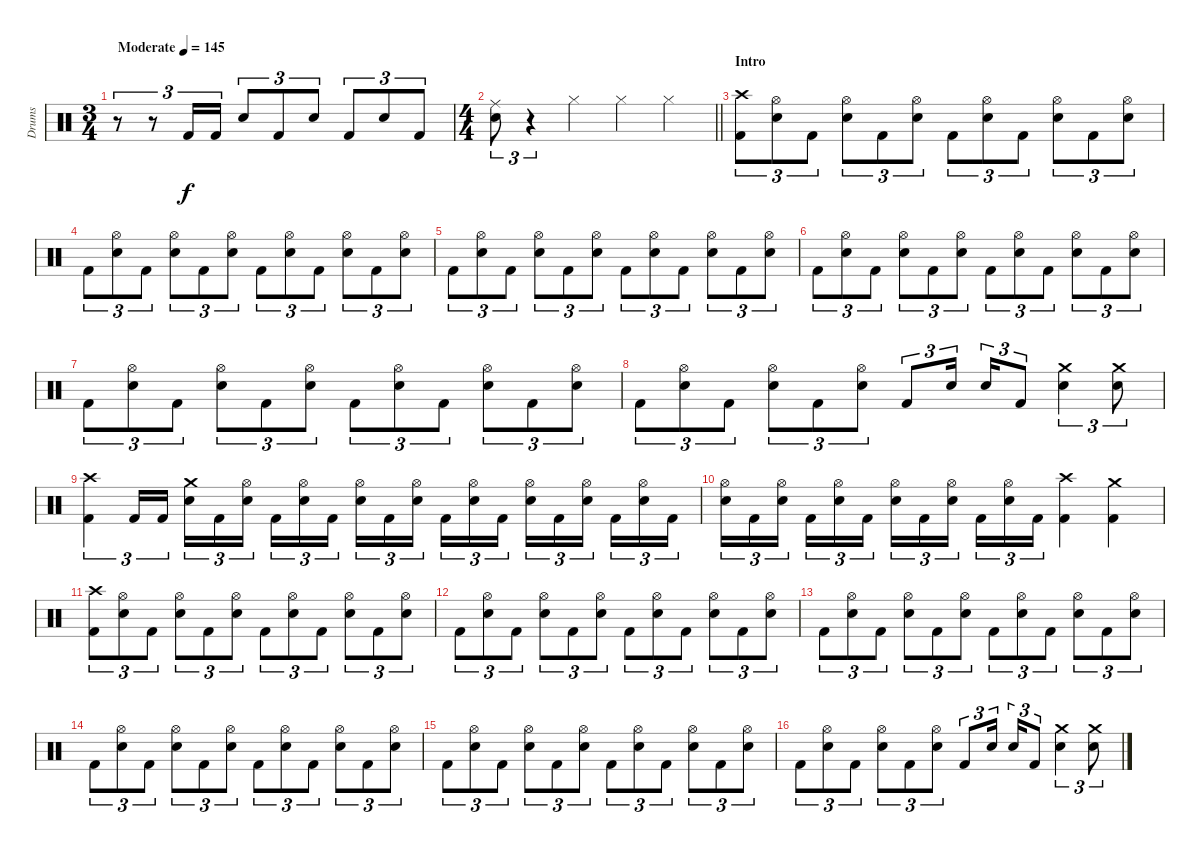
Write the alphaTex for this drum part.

\track ("Drums" "Drums") {instrument percussion}
\staff {score}
\articulation defaults
\ts (3 4)
\tempo (145 "Moderate")
\clef neutral
\ks c
r.8{tu (3 2) dy f} r.8{tu (3 2)} "Kick (hit) 2".16{tu (3 2)} "Kick (hit) 2".16{tu (3 2)} "Electric Snare (hit)".8{tu (3 2)} "Kick (hit) 2".8{tu (3 2)} "Electric Snare (hit)".8{tu (3 2)} "Kick (hit) 2".8{tu (3 2)} "Electric Snare (hit)".8{tu (3 2)} "Kick (hit) 2".8{tu (3 2)} |
\ts (4 4)
\barLineRight lightlight
("Ride (middle)" "Electric Snare (hit)").8{tu (3 2)} r.4{tu (3 2)} "Hi-Hat (closed)".4 "Hi-Hat (closed)".4 "Hi-Hat (closed)".4 |
\section ("" "Intro")
("Crash high (hit)" "Kick (hit) 2").8{tu (3 2)} ("Hi-Hat (open)" "Electric Snare (hit)").8{tu (3 2)} "Kick (hit) 2".8{tu (3 2)} ("Hi-Hat (open)" "Electric Snare (hit)").8{tu (3 2)} "Kick (hit) 2".8{tu (3 2)} ("Hi-Hat (open)" "Electric Snare (hit)").8{tu (3 2)} "Kick (hit) 2".8{tu (3 2)} ("Hi-Hat (open)" "Electric Snare (hit)").8{tu (3 2)} "Kick (hit) 2".8{tu (3 2)} ("Hi-Hat (open)" "Electric Snare (hit)").8{tu (3 2)} "Kick (hit) 2".8{tu (3 2)} ("Hi-Hat (open)" "Electric Snare (hit)").8{tu (3 2)} |
"Kick (hit) 2".8{tu (3 2)} ("Hi-Hat (open)" "Electric Snare (hit)").8{tu (3 2)} "Kick (hit) 2".8{tu (3 2)} ("Hi-Hat (open)" "Electric Snare (hit)").8{tu (3 2)} "Kick (hit) 2".8{tu (3 2)} ("Hi-Hat (open)" "Electric Snare (hit)").8{tu (3 2)} "Kick (hit) 2".8{tu (3 2)} ("Hi-Hat (open)" "Electric Snare (hit)").8{tu (3 2)} "Kick (hit) 2".8{tu (3 2)} ("Hi-Hat (open)" "Electric Snare (hit)").8{tu (3 2)} "Kick (hit) 2".8{tu (3 2)} ("Hi-Hat (open)" "Electric Snare (hit)").8{tu (3 2)} |
"Kick (hit) 2".8{tu (3 2)} ("Hi-Hat (open)" "Electric Snare (hit)").8{tu (3 2)} "Kick (hit) 2".8{tu (3 2)} ("Hi-Hat (open)" "Electric Snare (hit)").8{tu (3 2)} "Kick (hit) 2".8{tu (3 2)} ("Hi-Hat (open)" "Electric Snare (hit)").8{tu (3 2)} "Kick (hit) 2".8{tu (3 2)} ("Hi-Hat (open)" "Electric Snare (hit)").8{tu (3 2)} "Kick (hit) 2".8{tu (3 2)} ("Hi-Hat (open)" "Electric Snare (hit)").8{tu (3 2)} "Kick (hit) 2".8{tu (3 2)} ("Hi-Hat (open)" "Electric Snare (hit)").8{tu (3 2)} |
"Kick (hit) 2".8{tu (3 2)} ("Hi-Hat (open)" "Electric Snare (hit)").8{tu (3 2)} "Kick (hit) 2".8{tu (3 2)} ("Hi-Hat (open)" "Electric Snare (hit)").8{tu (3 2)} "Kick (hit) 2".8{tu (3 2)} ("Hi-Hat (open)" "Electric Snare (hit)").8{tu (3 2)} "Kick (hit) 2".8{tu (3 2)} ("Hi-Hat (open)" "Electric Snare (hit)").8{tu (3 2)} "Kick (hit) 2".8{tu (3 2)} ("Hi-Hat (open)" "Electric Snare (hit)").8{tu (3 2)} "Kick (hit) 2".8{tu (3 2)} ("Hi-Hat (open)" "Electric Snare (hit)").8{tu (3 2)} |
"Kick (hit) 2".8{tu (3 2)} ("Hi-Hat (open)" "Electric Snare (hit)").8{tu (3 2)} "Kick (hit) 2".8{tu (3 2)} ("Hi-Hat (open)" "Electric Snare (hit)").8{tu (3 2)} "Kick (hit) 2".8{tu (3 2)} ("Hi-Hat (open)" "Electric Snare (hit)").8{tu (3 2)} "Kick (hit) 2".8{tu (3 2)} ("Hi-Hat (open)" "Electric Snare (hit)").8{tu (3 2)} "Kick (hit) 2".8{tu (3 2)} ("Hi-Hat (open)" "Electric Snare (hit)").8{tu (3 2)} "Kick (hit) 2".8{tu (3 2)} ("Hi-Hat (open)" "Electric Snare (hit)").8{tu (3 2)} |
"Kick (hit) 2".8{tu (3 2)} ("Hi-Hat (open)" "Electric Snare (hit)").8{tu (3 2)} "Kick (hit) 2".8{tu (3 2)} ("Hi-Hat (open)" "Electric Snare (hit)").8{tu (3 2)} "Kick (hit) 2".8{tu (3 2)} ("Hi-Hat (open)" "Electric Snare (hit)").8{tu (3 2)} "Kick (hit) 2".8{tu (3 2)} "Electric Snare (hit)".16{tu (3 2) beam splitsecondary} "Electric Snare (hit)".16{tu (3 2)} "Kick (hit) 2".8{tu (3 2)} ("Crash medium (hit)" "Electric Snare (hit)").4{tu (3 2)} ("Crash medium (hit)" "Electric Snare (hit)").8{tu (3 2)} |
("Crash high (hit)" "Kick (hit) 2").4{tu (3 2)} "Kick (hit) 2".16{tu (3 2)} "Kick (hit) 2".16{tu (3 2)} ("Crash medium (hit)" "Electric Snare (hit)").16{tu (3 2)} "Kick (hit) 2".16{tu (3 2)} ("Hi-Hat (open)" "Electric Snare (hit)").16{tu (3 2) beam splitsecondary} "Kick (hit) 2".16{tu (3 2)} ("Hi-Hat (open)" "Electric Snare (hit)").16{tu (3 2)} "Kick (hit) 2".16{tu (3 2)} ("Hi-Hat (open)" "Electric Snare (hit)").16{tu (3 2)} "Kick (hit) 2".16{tu (3 2)} ("Hi-Hat (open)" "Electric Snare (hit)").16{tu (3 2) beam splitsecondary} "Kick (hit) 2".16{tu (3 2)} ("Hi-Hat (open)" "Electric Snare (hit)").16{tu (3 2)} "Kick (hit) 2".16{tu (3 2)} ("Hi-Hat (open)" "Electric Snare (hit)").16{tu (3 2)} "Kick (hit) 2".16{tu (3 2)} ("Hi-Hat (open)" "Electric Snare (hit)").16{tu (3 2) beam splitsecondary} "Kick (hit) 2".16{tu (3 2)} ("Hi-Hat (open)" "Electric Snare (hit)").16{tu (3 2)} "Kick (hit) 2".16{tu (3 2)} |
("Hi-Hat (open)" "Electric Snare (hit)").16{tu (3 2)} "Kick (hit) 2".16{tu (3 2)} ("Hi-Hat (open)" "Electric Snare (hit)").16{tu (3 2) beam splitsecondary} "Kick (hit) 2".16{tu (3 2)} ("Hi-Hat (open)" "Electric Snare (hit)").16{tu (3 2)} "Kick (hit) 2".16{tu (3 2)} ("Hi-Hat (open)" "Electric Snare (hit)").16{tu (3 2)} "Kick (hit) 2".16{tu (3 2)} ("Hi-Hat (open)" "Electric Snare (hit)").16{tu (3 2) beam splitsecondary} "Kick (hit) 2".16{tu (3 2)} ("Hi-Hat (open)" "Electric Snare (hit)").16{tu (3 2)} "Kick (hit) 2".16{tu (3 2)} ("Crash high (hit)" "Kick (hit) 2").4 ("Crash medium (hit)" "Kick (hit) 2").4 |
("Crash high (hit)" "Kick (hit) 2").8{tu (3 2)} ("Hi-Hat (open)" "Electric Snare (hit)").8{tu (3 2)} "Kick (hit) 2".8{tu (3 2)} ("Hi-Hat (open)" "Electric Snare (hit)").8{tu (3 2)} "Kick (hit) 2".8{tu (3 2)} ("Hi-Hat (open)" "Electric Snare (hit)").8{tu (3 2)} "Kick (hit) 2".8{tu (3 2)} ("Hi-Hat (open)" "Electric Snare (hit)").8{tu (3 2)} "Kick (hit) 2".8{tu (3 2)} ("Hi-Hat (open)" "Electric Snare (hit)").8{tu (3 2)} "Kick (hit) 2".8{tu (3 2)} ("Hi-Hat (open)" "Electric Snare (hit)").8{tu (3 2)} |
"Kick (hit) 2".8{tu (3 2)} ("Hi-Hat (open)" "Electric Snare (hit)").8{tu (3 2)} "Kick (hit) 2".8{tu (3 2)} ("Hi-Hat (open)" "Electric Snare (hit)").8{tu (3 2)} "Kick (hit) 2".8{tu (3 2)} ("Hi-Hat (open)" "Electric Snare (hit)").8{tu (3 2)} "Kick (hit) 2".8{tu (3 2)} ("Hi-Hat (open)" "Electric Snare (hit)").8{tu (3 2)} "Kick (hit) 2".8{tu (3 2)} ("Hi-Hat (open)" "Electric Snare (hit)").8{tu (3 2)} "Kick (hit) 2".8{tu (3 2)} ("Hi-Hat (open)" "Electric Snare (hit)").8{tu (3 2)} |
"Kick (hit) 2".8{tu (3 2)} ("Hi-Hat (open)" "Electric Snare (hit)").8{tu (3 2)} "Kick (hit) 2".8{tu (3 2)} ("Hi-Hat (open)" "Electric Snare (hit)").8{tu (3 2)} "Kick (hit) 2".8{tu (3 2)} ("Hi-Hat (open)" "Electric Snare (hit)").8{tu (3 2)} "Kick (hit) 2".8{tu (3 2)} ("Hi-Hat (open)" "Electric Snare (hit)").8{tu (3 2)} "Kick (hit) 2".8{tu (3 2)} ("Hi-Hat (open)" "Electric Snare (hit)").8{tu (3 2)} "Kick (hit) 2".8{tu (3 2)} ("Hi-Hat (open)" "Electric Snare (hit)").8{tu (3 2)} |
"Kick (hit) 2".8{tu (3 2)} ("Hi-Hat (open)" "Electric Snare (hit)").8{tu (3 2)} "Kick (hit) 2".8{tu (3 2)} ("Hi-Hat (open)" "Electric Snare (hit)").8{tu (3 2)} "Kick (hit) 2".8{tu (3 2)} ("Hi-Hat (open)" "Electric Snare (hit)").8{tu (3 2)} "Kick (hit) 2".8{tu (3 2)} ("Hi-Hat (open)" "Electric Snare (hit)").8{tu (3 2)} "Kick (hit) 2".8{tu (3 2)} ("Hi-Hat (open)" "Electric Snare (hit)").8{tu (3 2)} "Kick (hit) 2".8{tu (3 2)} ("Hi-Hat (open)" "Electric Snare (hit)").8{tu (3 2)} |
"Kick (hit) 2".8{tu (3 2)} ("Hi-Hat (open)" "Electric Snare (hit)").8{tu (3 2)} "Kick (hit) 2".8{tu (3 2)} ("Hi-Hat (open)" "Electric Snare (hit)").8{tu (3 2)} "Kick (hit) 2".8{tu (3 2)} ("Hi-Hat (open)" "Electric Snare (hit)").8{tu (3 2)} "Kick (hit) 2".8{tu (3 2)} ("Hi-Hat (open)" "Electric Snare (hit)").8{tu (3 2)} "Kick (hit) 2".8{tu (3 2)} ("Hi-Hat (open)" "Electric Snare (hit)").8{tu (3 2)} "Kick (hit) 2".8{tu (3 2)} ("Hi-Hat (open)" "Electric Snare (hit)").8{tu (3 2)} |
"Kick (hit) 2".8{tu (3 2)} ("Hi-Hat (open)" "Electric Snare (hit)").8{tu (3 2)} "Kick (hit) 2".8{tu (3 2)} ("Hi-Hat (open)" "Electric Snare (hit)").8{tu (3 2)} "Kick (hit) 2".8{tu (3 2)} ("Hi-Hat (open)" "Electric Snare (hit)").8{tu (3 2)} "Kick (hit) 2".8{tu (3 2)} "Electric Snare (hit)".16{tu (3 2) beam splitsecondary} "Electric Snare (hit)".16{tu (3 2)} "Kick (hit) 2".8{tu (3 2)} ("Crash medium (hit)" "Electric Snare (hit)").4{tu (3 2)} ("Crash medium (hit)" "Electric Snare (hit)").8{tu (3 2)}
